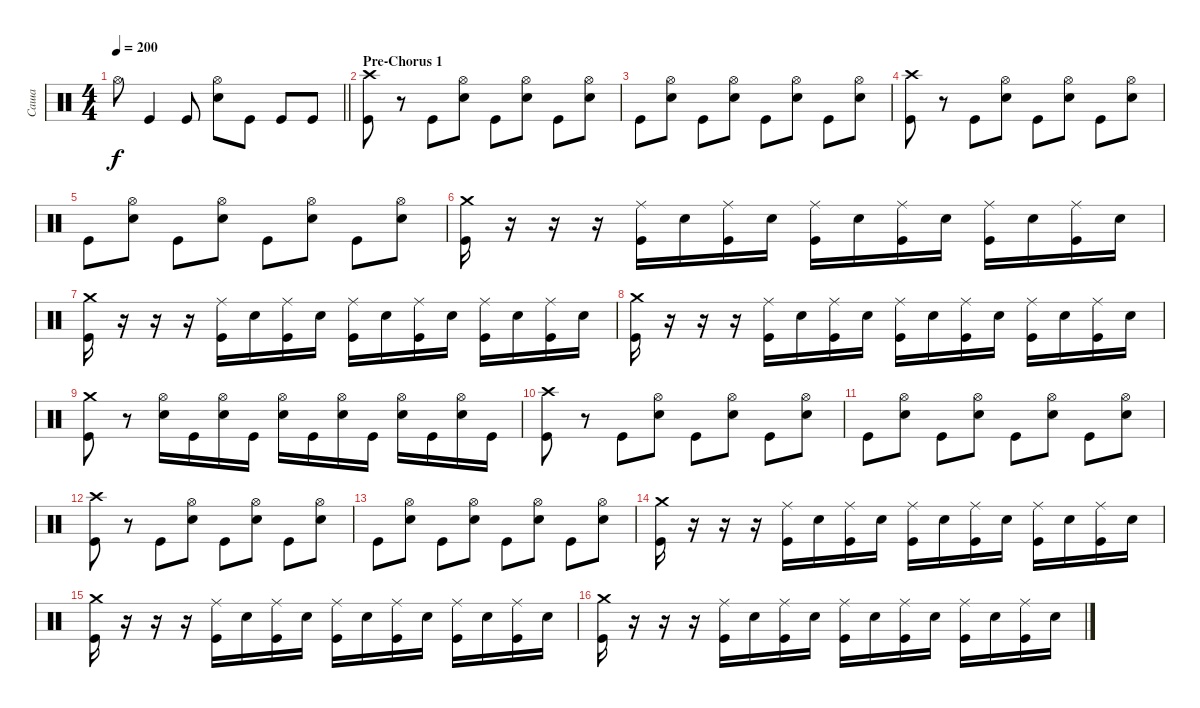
\track ("Саша" "Саша") {instrument percussion}
\staff {score}
\articulation defaults
\ts (4 4)
\tempo 200
\clef neutral
\barLineRight lightlight
\ks c "Hi-Hat (open)".8{dy f} "Kick (hit)".4 "Kick (hit)".8
("Hi-Hat (open)" "Electric Snare (hit)").8 "Kick (hit)".8 "Kick (hit)".8 "Kick (hit)".8 |
\section ("" "Pre-Chorus 1")
("Crash high (hit)" "Kick (hit)").8 r.8 "Kick (hit)".8 ("Hi-Hat (open)" "Electric Snare (hit)").8 "Kick (hit)".8 ("Hi-Hat (open)" "Electric Snare (hit)").8 "Kick (hit)".8 ("Hi-Hat (open)" "Electric Snare (hit)").8 |
"Kick (hit)".8 ("Hi-Hat (open)" "Electric Snare (hit)").8 "Kick (hit)".8 ("Hi-Hat (open)" "Electric Snare (hit)").8 "Kick (hit)".8 ("Hi-Hat (open)" "Electric Snare (hit)").8 "Kick (hit)".8 ("Hi-Hat (open)" "Electric Snare (hit)").8 |
("Crash high (hit)" "Kick (hit)").8 r.8 "Kick (hit)".8 ("Hi-Hat (open)" "Electric Snare (hit)").8 "Kick (hit)".8 ("Hi-Hat (open)" "Electric Snare (hit)").8 "Kick (hit)".8 ("Hi-Hat (open)" "Electric Snare (hit)").8 |
"Kick (hit)".8 ("Hi-Hat (open)" "Electric Snare (hit)").8 "Kick (hit)".8 ("Hi-Hat (open)" "Electric Snare (hit)").8 "Kick (hit)".8 ("Hi-Hat (open)" "Electric Snare (hit)").8 "Kick (hit)".8 ("Hi-Hat (open)" "Electric Snare (hit)").8 |
("Crash medium (hit)" "Kick (hit)").16 r.16 r.16 r.16 ("Ride (middle)" "Kick (hit)").16 "Electric Snare (hit)".16 ("Ride (middle)" "Kick (hit)").16 "Electric Snare (hit)".16 ("Ride (middle)" "Kick (hit)").16 "Electric Snare (hit)".16 ("Ride (middle)" "Kick (hit)").16 "Electric Snare (hit)".16 ("Ride (middle)" "Kick (hit)").16 "Electric Snare (hit)".16 ("Ride (middle)" "Kick (hit)").16 "Electric Snare (hit)".16 |
("Crash medium (hit)" "Kick (hit)").16 r.16 r.16 r.16 ("Ride (middle)" "Kick (hit)").16 "Electric Snare (hit)".16 ("Ride (middle)" "Kick (hit)").16 "Electric Snare (hit)".16 ("Ride (middle)" "Kick (hit)").16 "Electric Snare (hit)".16 ("Ride (middle)" "Kick (hit)").16 "Electric Snare (hit)".16 ("Ride (middle)" "Kick (hit)").16 "Electric Snare (hit)".16 ("Ride (middle)" "Kick (hit)").16 "Electric Snare (hit)".16 |
("Crash medium (hit)" "Kick (hit)").16 r.16 r.16 r.16 ("Ride (middle)" "Kick (hit)").16 "Electric Snare (hit)".16 ("Ride (middle)" "Kick (hit)").16 "Electric Snare (hit)".16 ("Ride (middle)" "Kick (hit)").16 "Electric Snare (hit)".16 ("Ride (middle)" "Kick (hit)").16 "Electric Snare (hit)".16 ("Ride (middle)" "Kick (hit)").16 "Electric Snare (hit)".16 ("Ride (middle)" "Kick (hit)").16 "Electric Snare (hit)".16 |
("Crash medium (hit)" "Kick (hit)").8 r.8 ("Hi-Hat (open)" "Electric Snare (hit)").16 "Kick (hit)".16 ("Hi-Hat (open)" "Electric Snare (hit)").16 "Kick (hit)".16 ("Hi-Hat (open)" "Electric Snare (hit)").16 "Kick (hit)".16 ("Hi-Hat (open)" "Electric Snare (hit)").16 "Kick (hit)".16 ("Hi-Hat (open)" "Electric Snare (hit)").16 "Kick (hit)".16 ("Hi-Hat (open)" "Electric Snare (hit)").16 "Kick (hit)".16 |
("Crash high (hit)" "Kick (hit)").8 r.8 "Kick (hit)".8 ("Hi-Hat (open)" "Electric Snare (hit)").8 "Kick (hit)".8 ("Hi-Hat (open)" "Electric Snare (hit)").8 "Kick (hit)".8 ("Hi-Hat (open)" "Electric Snare (hit)").8 |
"Kick (hit)".8 ("Hi-Hat (open)" "Electric Snare (hit)").8 "Kick (hit)".8 ("Hi-Hat (open)" "Electric Snare (hit)").8 "Kick (hit)".8 ("Hi-Hat (open)" "Electric Snare (hit)").8 "Kick (hit)".8 ("Hi-Hat (open)" "Electric Snare (hit)").8 |
("Crash high (hit)" "Kick (hit)").8 r.8 "Kick (hit)".8 ("Hi-Hat (open)" "Electric Snare (hit)").8 "Kick (hit)".8 ("Hi-Hat (open)" "Electric Snare (hit)").8 "Kick (hit)".8 ("Hi-Hat (open)" "Electric Snare (hit)").8 |
"Kick (hit)".8 ("Hi-Hat (open)" "Electric Snare (hit)").8 "Kick (hit)".8 ("Hi-Hat (open)" "Electric Snare (hit)").8 "Kick (hit)".8 ("Hi-Hat (open)" "Electric Snare (hit)").8 "Kick (hit)".8 ("Hi-Hat (open)" "Electric Snare (hit)").8 |
("Crash medium (hit)" "Kick (hit)").16 r.16 r.16 r.16 ("Ride (middle)" "Kick (hit)").16 "Electric Snare (hit)".16 ("Ride (middle)" "Kick (hit)").16 "Electric Snare (hit)".16 ("Ride (middle)" "Kick (hit)").16 "Electric Snare (hit)".16 ("Ride (middle)" "Kick (hit)").16 "Electric Snare (hit)".16 ("Ride (middle)" "Kick (hit)").16 "Electric Snare (hit)".16 ("Ride (middle)" "Kick (hit)").16 "Electric Snare (hit)".16 |
("Crash medium (hit)" "Kick (hit)").16 r.16 r.16 r.16 ("Ride (middle)" "Kick (hit)").16 "Electric Snare (hit)".16 ("Ride (middle)" "Kick (hit)").16 "Electric Snare (hit)".16 ("Ride (middle)" "Kick (hit)").16 "Electric Snare (hit)".16 ("Ride (middle)" "Kick (hit)").16 "Electric Snare (hit)".16 ("Ride (middle)" "Kick (hit)").16 "Electric Snare (hit)".16 ("Ride (middle)" "Kick (hit)").16 "Electric Snare (hit)".16 |
("Crash medium (hit)" "Kick (hit)").16 r.16 r.16 r.16 ("Ride (middle)" "Kick (hit)").16 "Electric Snare (hit)".16 ("Ride (middle)" "Kick (hit)").16 "Electric Snare (hit)".16 ("Ride (middle)" "Kick (hit)").16 "Electric Snare (hit)".16 ("Ride (middle)" "Kick (hit)").16 "Electric Snare (hit)".16 ("Ride (middle)" "Kick (hit)").16 "Electric Snare (hit)".16 ("Ride (middle)" "Kick (hit)").16 "Electric Snare (hit)".16
